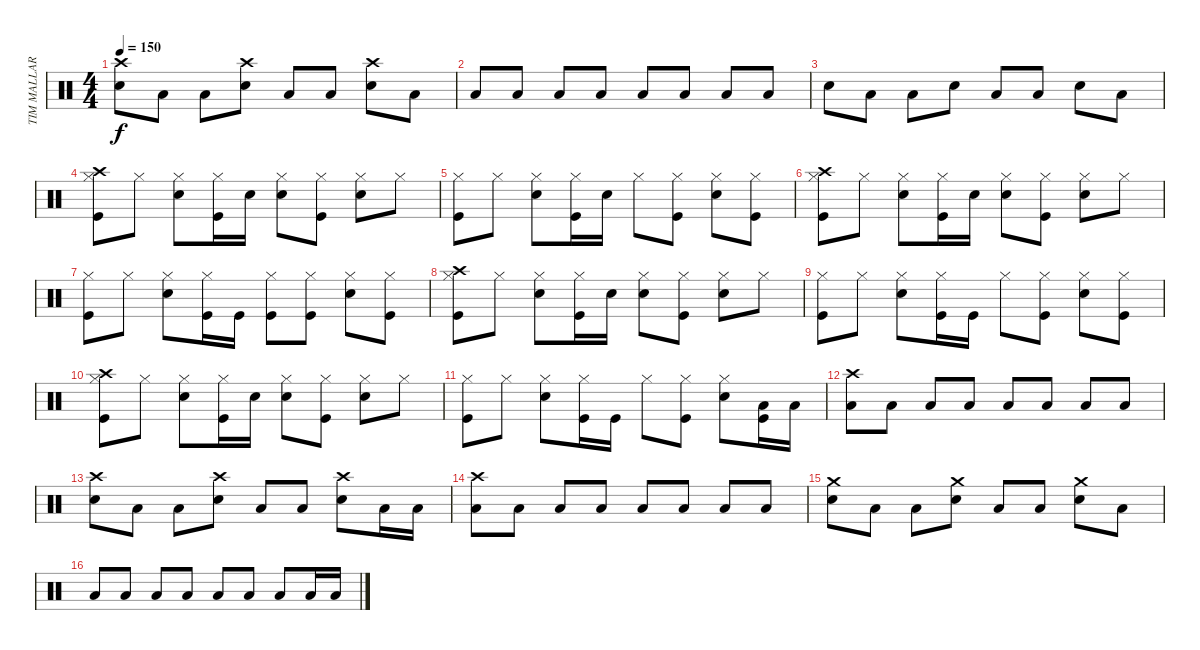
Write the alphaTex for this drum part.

\track ("TIM MALLARE - drums" "TIM MALLAR") {instrument percussion}
\staff {score}
\articulation defaults
\ts (4 4)
\tempo 150
\clef neutral
\ks c
("Crash high (hit)" "Electric Snare (hit)").8{dy f} "Low Tom (hit)".8 "Low Tom (hit)".8 ("Crash high (hit)" "Electric Snare (hit)").8 "Low Tom (hit)".8 "Low Tom (hit)".8 ("Crash high (hit)" "Electric Snare (hit)").8 "Low Tom (hit)".8 |
"Low Tom (hit)".8 "Low Tom (hit)".8 "Low Tom (hit)".8 "Low Tom (hit)".8 "Low Tom (hit)".8 "Low Tom (hit)".8 "Low Tom (hit)".8 "Low Tom (hit)".8 |
"Electric Snare (hit)".8 "Low Tom (hit)".8 "Low Tom (hit)".8 "Electric Snare (hit)".8 "Low Tom (hit)".8 "Low Tom (hit)".8 "Electric Snare (hit)".8 "Low Tom (hit)".8 |
("Crash high (hit)" "Hi-Hat (closed)" "Kick (hit)").8 "Hi-Hat (closed)".8 ("Hi-Hat (closed)" "Electric Snare (hit)").8 ("Hi-Hat (closed)" "Kick (hit)").16 "Electric Snare (hit)".16 ("Hi-Hat (closed)" "Electric Snare (hit)").8 ("Hi-Hat (closed)" "Kick (hit)").8 ("Hi-Hat (closed)" "Electric Snare (hit)").8 "Hi-Hat (closed)".8 |
("Hi-Hat (closed)" "Kick (hit)").8 "Hi-Hat (closed)".8 ("Hi-Hat (closed)" "Electric Snare (hit)").8 ("Hi-Hat (closed)" "Kick (hit)").16 "Electric Snare (hit)".16 "Hi-Hat (closed)".8 ("Hi-Hat (closed)" "Kick (hit)").8 ("Hi-Hat (closed)" "Electric Snare (hit)").8 ("Hi-Hat (closed)" "Kick (hit)").8 |
("Crash high (hit)" "Hi-Hat (closed)" "Kick (hit)").8 "Hi-Hat (closed)".8 ("Hi-Hat (closed)" "Electric Snare (hit)").8 ("Hi-Hat (closed)" "Kick (hit)").16 "Electric Snare (hit)".16 ("Hi-Hat (closed)" "Electric Snare (hit)").8 ("Hi-Hat (closed)" "Kick (hit)").8 ("Hi-Hat (closed)" "Electric Snare (hit)").8 "Hi-Hat (closed)".8 |
("Hi-Hat (closed)" "Kick (hit)").8 "Hi-Hat (closed)".8 ("Hi-Hat (closed)" "Electric Snare (hit)").8 ("Hi-Hat (closed)" "Kick (hit)").16 "Kick (hit)".16 ("Hi-Hat (closed)" "Kick (hit)").8 ("Hi-Hat (closed)" "Kick (hit)").8 ("Hi-Hat (closed)" "Electric Snare (hit)").8 ("Hi-Hat (closed)" "Kick (hit)").8 |
("Crash high (hit)" "Hi-Hat (closed)" "Kick (hit)").8 "Hi-Hat (closed)".8 ("Hi-Hat (closed)" "Electric Snare (hit)").8 ("Hi-Hat (closed)" "Kick (hit)").16 "Electric Snare (hit)".16 ("Hi-Hat (closed)" "Electric Snare (hit)").8 ("Hi-Hat (closed)" "Kick (hit)").8 ("Hi-Hat (closed)" "Electric Snare (hit)").8 "Hi-Hat (closed)".8 |
("Hi-Hat (closed)" "Kick (hit)").8 "Hi-Hat (closed)".8 ("Hi-Hat (closed)" "Electric Snare (hit)").8 ("Hi-Hat (closed)" "Kick (hit)").16 "Kick (hit)".16 "Hi-Hat (closed)".8 ("Hi-Hat (closed)" "Kick (hit)").8 ("Hi-Hat (closed)" "Electric Snare (hit)").8 ("Hi-Hat (closed)" "Kick (hit)").8 |
("Crash high (hit)" "Hi-Hat (closed)" "Kick (hit)").8 "Hi-Hat (closed)".8 ("Hi-Hat (closed)" "Electric Snare (hit)").8 ("Hi-Hat (closed)" "Kick (hit)").16 "Electric Snare (hit)".16 ("Hi-Hat (closed)" "Electric Snare (hit)").8 ("Hi-Hat (closed)" "Kick (hit)").8 ("Hi-Hat (closed)" "Electric Snare (hit)").8 "Hi-Hat (closed)".8 |
("Hi-Hat (closed)" "Kick (hit)").8 "Hi-Hat (closed)".8 ("Hi-Hat (closed)" "Electric Snare (hit)").8 ("Hi-Hat (closed)" "Kick (hit)").16 "Kick (hit)".16 "Hi-Hat (closed)".8 ("Hi-Hat (closed)" "Kick (hit)").8 ("Hi-Hat (closed)" "Electric Snare (hit)").8 ("Low Tom (hit)" "Kick (hit)").16 "Low Tom (hit)".16 |
("Crash high (hit)" "Low Tom (hit)").8 "Low Tom (hit)".8 "Low Tom (hit)".8 "Low Tom (hit)".8 "Low Tom (hit)".8 "Low Tom (hit)".8 "Low Tom (hit)".8 "Low Tom (hit)".8 |
("Crash high (hit)" "Electric Snare (hit)").8 "Low Tom (hit)".8 "Low Tom (hit)".8 ("Crash high (hit)" "Electric Snare (hit)").8 "Low Tom (hit)".8 "Low Tom (hit)".8 ("Crash high (hit)" "Electric Snare (hit)").8 "Low Tom (hit)".16 "Low Tom (hit)".16 |
("Crash high (hit)" "Low Tom (hit)").8 "Low Tom (hit)".8 "Low Tom (hit)".8 "Low Tom (hit)".8 "Low Tom (hit)".8 "Low Tom (hit)".8 "Low Tom (hit)".8 "Low Tom (hit)".8 |
("Crash medium (hit)" "Electric Snare (hit)").8 "Low Tom (hit)".8 "Low Tom (hit)".8 ("Crash medium (hit)" "Electric Snare (hit)").8 "Low Tom (hit)".8 "Low Tom (hit)".8 ("Crash medium (hit)" "Electric Snare (hit)").8 "Low Tom (hit)".8 |
"Low Tom (hit)".8 "Low Tom (hit)".8 "Low Tom (hit)".8 "Low Tom (hit)".8 "Low Tom (hit)".8 "Low Tom (hit)".8 "Low Tom (hit)".8 "Low Tom (hit)".16 "Low Tom (hit)".16
